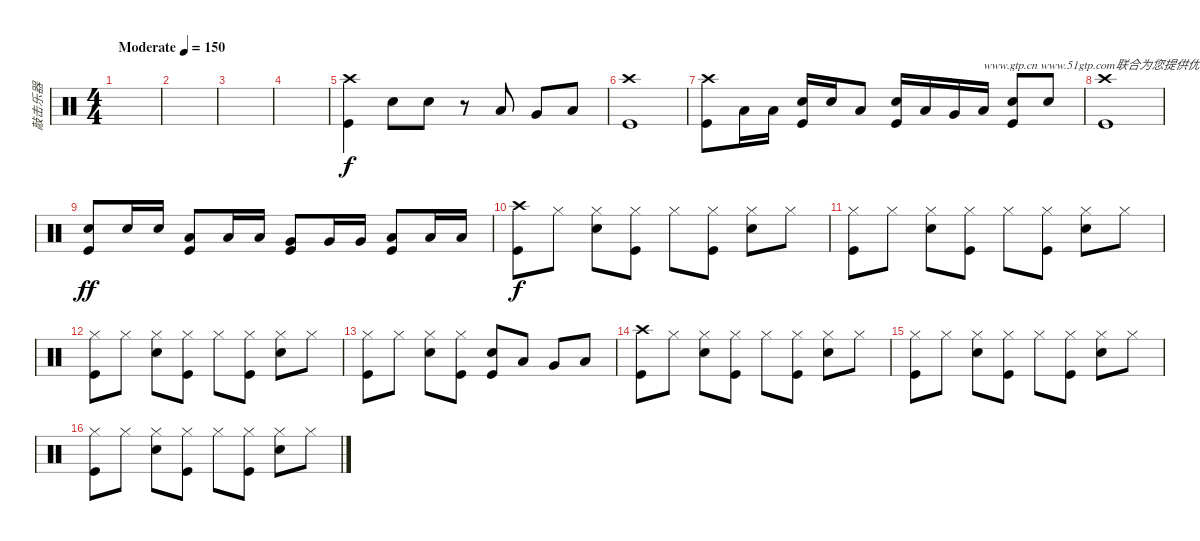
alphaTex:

\track ("敲击乐器" "敲击乐器") {instrument percussion}
\staff {score}
\articulation defaults
\ts (4 4)
\tempo (150 "Moderate")
\clef neutral
\ks c
|
|
|
|
("Crash high (hit)" "Kick (hit)").4 "Snare (hit) 2".8 "Snare (hit) 2".8 r.8 "Low Tom (hit)".8 "Very Low Tom (hit)".8 "Low Floor Tom (hit)".8 |
("Crash high (hit)" "Kick (hit)").1 |
("Kick (hit)" "Crash high (hit)").8 "Low Tom (hit)".16 "Low Tom (hit)".16 ("Snare (hit) 2" "Kick (hit)").16 "Snare (hit) 2".16 "Low Tom (hit)".8 ("Snare (hit) 2" "Kick (hit)").16 "Low Tom (hit)".16 "Very Low Tom (hit)".16 "Low Floor Tom (hit)".16{txt "www.gtp.cn www.51gtp.com联合为您提供优秀的GTP!"} ("Snare (hit) 2" "Kick (hit)").8 "Snare (hit) 2".8 |
("Crash high (hit)" "Kick (hit)").1 |
("Snare (hit) 2" "Kick (hit)").8{dy ff} "Snare (hit) 2".16 "Snare (hit) 2".16 ("Low Tom (hit)" "Kick (hit)").8 "Low Tom (hit)".16 "Low Tom (hit)".16 ("Very Low Tom (hit)" "Kick (hit)").8 "Very Low Tom (hit)".16 "Very Low Tom (hit)".16 ("Low Floor Tom (hit)" "Kick (hit)").8 "Low Floor Tom (hit)".16 "Low Floor Tom (hit)".16 |
("Crash high (hit)" "Kick (hit)").8{dy f} "Hi-Hat (closed)".8 ("Hi-Hat (closed)" "Snare (hit) 2").8 ("Hi-Hat (closed)" "Kick (hit)").8 "Hi-Hat (closed)".8 ("Hi-Hat (closed)" "Kick (hit)").8 ("Hi-Hat (closed)" "Snare (hit) 2").8 "Hi-Hat (closed)".8 |
("Hi-Hat (closed)" "Kick (hit)").8 "Hi-Hat (closed)".8 ("Hi-Hat (closed)" "Snare (hit) 2").8 ("Hi-Hat (closed)" "Kick (hit)").8 "Hi-Hat (closed)".8 ("Hi-Hat (closed)" "Kick (hit)").8 ("Hi-Hat (closed)" "Snare (hit) 2").8 "Hi-Hat (closed)".8 |
("Hi-Hat (closed)" "Kick (hit)").8 "Hi-Hat (closed)".8 ("Hi-Hat (closed)" "Snare (hit) 2").8 ("Hi-Hat (closed)" "Kick (hit)").8 "Hi-Hat (closed)".8 ("Hi-Hat (closed)" "Kick (hit)").8 ("Hi-Hat (closed)" "Snare (hit) 2").8 "Hi-Hat (closed)".8 |
("Hi-Hat (closed)" "Kick (hit)").8 "Hi-Hat (closed)".8 ("Hi-Hat (closed)" "Snare (hit) 2").8 ("Hi-Hat (closed)" "Kick (hit)").8 ("Snare (hit) 2" "Kick (hit)").8 "Low Tom (hit)".8 "Very Low Tom (hit)".8 "Low Floor Tom (hit)".8 |
("Crash high (hit)" "Kick (hit)").8 "Hi-Hat (closed)".8 ("Hi-Hat (closed)" "Snare (hit) 2").8 ("Hi-Hat (closed)" "Kick (hit)").8 "Hi-Hat (closed)".8 ("Hi-Hat (closed)" "Kick (hit)").8 ("Hi-Hat (closed)" "Snare (hit) 2").8 "Hi-Hat (closed)".8 |
("Hi-Hat (closed)" "Kick (hit)").8 "Hi-Hat (closed)".8 ("Hi-Hat (closed)" "Snare (hit) 2").8 ("Hi-Hat (closed)" "Kick (hit)").8 "Hi-Hat (closed)".8 ("Hi-Hat (closed)" "Kick (hit)").8 ("Hi-Hat (closed)" "Snare (hit) 2").8 "Hi-Hat (closed)".8 |
("Hi-Hat (closed)" "Kick (hit)").8 "Hi-Hat (closed)".8 ("Hi-Hat (closed)" "Snare (hit) 2").8 ("Hi-Hat (closed)" "Kick (hit)").8 "Hi-Hat (closed)".8 ("Hi-Hat (closed)" "Kick (hit)").8 ("Hi-Hat (closed)" "Snare (hit) 2").8 "Hi-Hat (closed)".8
